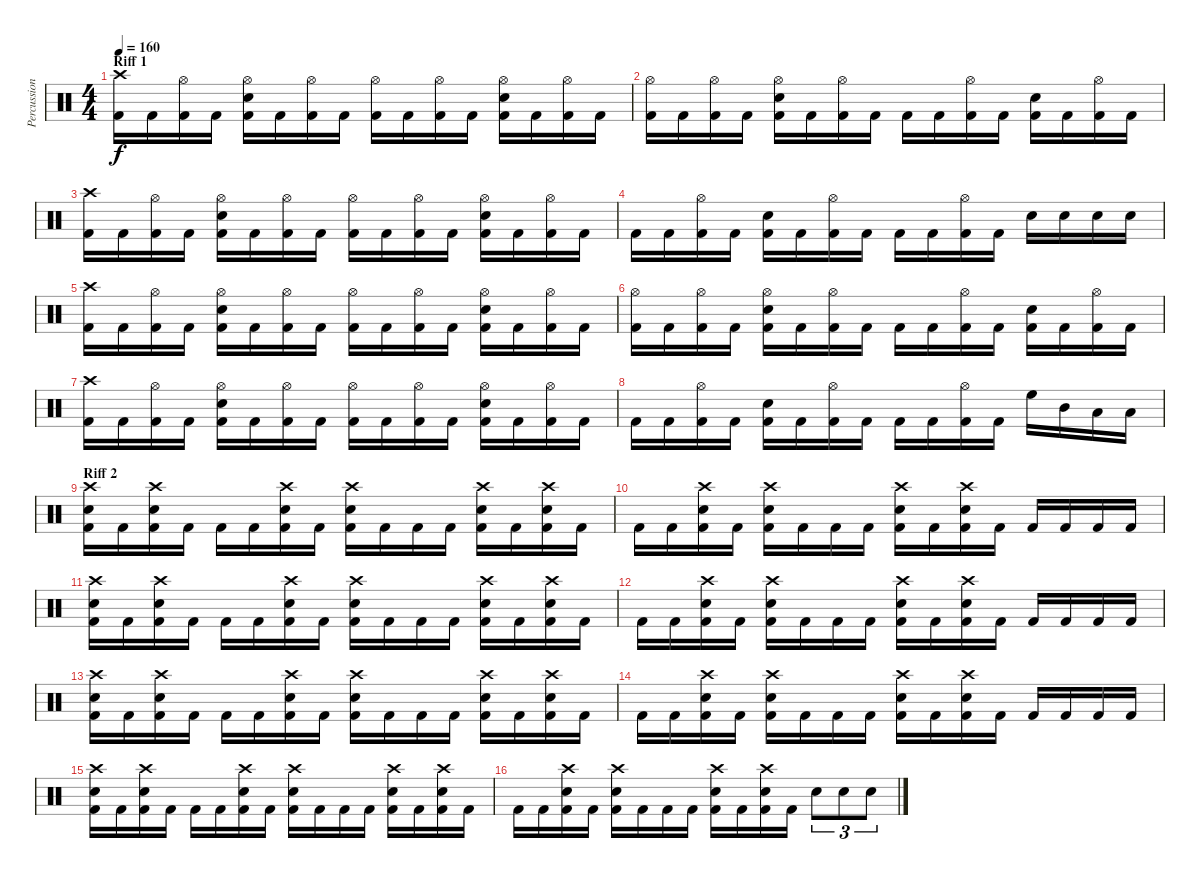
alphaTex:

\track ("Percussion" "Percussion") {instrument percussion}
\staff {score}
\articulation defaults
\ts (4 4)
\section ("" "Riff 1")
\tempo 160
\clef neutral
\ks c
("Crash high (hit)" "Kick (hit) 2").16{dy f} "Kick (hit) 2".16 ("Hi-Hat (open)" "Kick (hit) 2").16 "Kick (hit) 2".16 ("Hi-Hat (open)" "Electric Snare (hit)" "Kick (hit) 2").16 "Kick (hit) 2".16 ("Hi-Hat (open)" "Kick (hit) 2").16 "Kick (hit) 2".16 ("Hi-Hat (open)" "Kick (hit) 2").16 "Kick (hit) 2".16 ("Hi-Hat (open)" "Kick (hit) 2").16 "Kick (hit) 2".16 ("Hi-Hat (open)" "Electric Snare (hit)" "Kick (hit) 2").16 "Kick (hit) 2".16 ("Hi-Hat (open)" "Kick (hit) 2").16 "Kick (hit) 2".16 |
("Hi-Hat (open)" "Kick (hit) 2").16 "Kick (hit) 2".16 ("Hi-Hat (open)" "Kick (hit) 2").16 "Kick (hit) 2".16 ("Hi-Hat (open)" "Electric Snare (hit)" "Kick (hit) 2").16 "Kick (hit) 2".16 ("Hi-Hat (open)" "Kick (hit) 2").16 "Kick (hit) 2".16 "Kick (hit) 2".16 "Kick (hit) 2".16 ("Hi-Hat (open)" "Kick (hit) 2").16 "Kick (hit) 2".16 ("Electric Snare (hit)" "Kick (hit) 2").16 "Kick (hit) 2".16 ("Hi-Hat (open)" "Kick (hit) 2").16 "Kick (hit) 2".16 |
("Crash high (hit)" "Kick (hit) 2").16 "Kick (hit) 2".16 ("Hi-Hat (open)" "Kick (hit) 2").16 "Kick (hit) 2".16 ("Hi-Hat (open)" "Electric Snare (hit)" "Kick (hit) 2").16 "Kick (hit) 2".16 ("Hi-Hat (open)" "Kick (hit) 2").16 "Kick (hit) 2".16 ("Hi-Hat (open)" "Kick (hit) 2").16 "Kick (hit) 2".16 ("Hi-Hat (open)" "Kick (hit) 2").16 "Kick (hit) 2".16 ("Hi-Hat (open)" "Electric Snare (hit)" "Kick (hit) 2").16 "Kick (hit) 2".16 ("Hi-Hat (open)" "Kick (hit) 2").16 "Kick (hit) 2".16 |
"Kick (hit) 2".16 "Kick (hit) 2".16 ("Hi-Hat (open)" "Kick (hit) 2").16 "Kick (hit) 2".16 ("Electric Snare (hit)" "Kick (hit) 2").16 "Kick (hit) 2".16 ("Hi-Hat (open)" "Kick (hit) 2").16 "Kick (hit) 2".16 "Kick (hit) 2".16 "Kick (hit) 2".16 ("Hi-Hat (open)" "Kick (hit) 2").16 "Kick (hit) 2".16 "Electric Snare (hit)".16 "Electric Snare (hit)".16 "Electric Snare (hit)".16 "Electric Snare (hit)".16 |
("Crash high (hit)" "Kick (hit) 2").16 "Kick (hit) 2".16 ("Hi-Hat (open)" "Kick (hit) 2").16 "Kick (hit) 2".16 ("Hi-Hat (open)" "Electric Snare (hit)" "Kick (hit) 2").16 "Kick (hit) 2".16 ("Hi-Hat (open)" "Kick (hit) 2").16 "Kick (hit) 2".16 ("Hi-Hat (open)" "Kick (hit) 2").16 "Kick (hit) 2".16 ("Hi-Hat (open)" "Kick (hit) 2").16 "Kick (hit) 2".16 ("Hi-Hat (open)" "Electric Snare (hit)" "Kick (hit) 2").16 "Kick (hit) 2".16 ("Hi-Hat (open)" "Kick (hit) 2").16 "Kick (hit) 2".16 |
("Hi-Hat (open)" "Kick (hit) 2").16 "Kick (hit) 2".16 ("Hi-Hat (open)" "Kick (hit) 2").16 "Kick (hit) 2".16 ("Hi-Hat (open)" "Electric Snare (hit)" "Kick (hit) 2").16 "Kick (hit) 2".16 ("Hi-Hat (open)" "Kick (hit) 2").16 "Kick (hit) 2".16 "Kick (hit) 2".16 "Kick (hit) 2".16 ("Hi-Hat (open)" "Kick (hit) 2").16 "Kick (hit) 2".16 ("Electric Snare (hit)" "Kick (hit) 2").16 "Kick (hit) 2".16 ("Hi-Hat (open)" "Kick (hit) 2").16 "Kick (hit) 2".16 |
("Crash high (hit)" "Kick (hit) 2").16 "Kick (hit) 2".16 ("Hi-Hat (open)" "Kick (hit) 2").16 "Kick (hit) 2".16 ("Hi-Hat (open)" "Electric Snare (hit)" "Kick (hit) 2").16 "Kick (hit) 2".16 ("Hi-Hat (open)" "Kick (hit) 2").16 "Kick (hit) 2".16 ("Hi-Hat (open)" "Kick (hit) 2").16 "Kick (hit) 2".16 ("Hi-Hat (open)" "Kick (hit) 2").16 "Kick (hit) 2".16 ("Hi-Hat (open)" "Electric Snare (hit)" "Kick (hit) 2").16 "Kick (hit) 2".16 ("Hi-Hat (open)" "Kick (hit) 2").16 "Kick (hit) 2".16 |
"Kick (hit) 2".16 "Kick (hit) 2".16 ("Hi-Hat (open)" "Kick (hit) 2").16 "Kick (hit) 2".16 ("Electric Snare (hit)" "Kick (hit) 2").16 "Kick (hit) 2".16 ("Hi-Hat (open)" "Kick (hit) 2").16 "Kick (hit) 2".16 "Kick (hit) 2".16 "Kick (hit) 2".16 ("Hi-Hat (open)" "Kick (hit) 2").16 "Kick (hit) 2".16 "High Floor Tom (hit)".16 "Mid Tom (hit)".16 "Low Tom (hit)".16 "Low Floor Tom (hit)".16 |
\section ("" "Riff 2")
("Crash high (hit)" "Electric Snare (hit)" "Kick (hit) 2").16 "Kick (hit) 2".16 ("Crash high (hit)" "Electric Snare (hit)" "Kick (hit) 2").16 "Kick (hit) 2".16 "Kick (hit) 2".16 "Kick (hit) 2".16 ("Crash high (hit)" "Electric Snare (hit)" "Kick (hit) 2").16 "Kick (hit) 2".16 ("Crash high (hit)" "Electric Snare (hit)" "Kick (hit) 2").16 "Kick (hit) 2".16 "Kick (hit) 2".16 "Kick (hit) 2".16 ("Crash high (hit)" "Electric Snare (hit)" "Kick (hit) 2").16 "Kick (hit) 2".16 ("Crash high (hit)" "Electric Snare (hit)" "Kick (hit) 2").16 "Kick (hit) 2".16 |
"Kick (hit) 2".16 "Kick (hit) 2".16 ("Crash high (hit)" "Electric Snare (hit)" "Kick (hit) 2").16 "Kick (hit) 2".16 ("Crash high (hit)" "Electric Snare (hit)" "Kick (hit) 2").16 "Kick (hit) 2".16 "Kick (hit) 2".16 "Kick (hit) 2".16 ("Crash high (hit)" "Electric Snare (hit)" "Kick (hit) 2").16 "Kick (hit) 2".16 ("Crash high (hit)" "Electric Snare (hit)" "Kick (hit) 2").16 "Kick (hit) 2".16 "Kick (hit) 2".16 "Kick (hit) 2".16 "Kick (hit) 2".16 "Kick (hit) 2".16 |
("Crash high (hit)" "Electric Snare (hit)" "Kick (hit) 2").16 "Kick (hit) 2".16 ("Crash high (hit)" "Electric Snare (hit)" "Kick (hit) 2").16 "Kick (hit) 2".16 "Kick (hit) 2".16 "Kick (hit) 2".16 ("Crash high (hit)" "Electric Snare (hit)" "Kick (hit) 2").16 "Kick (hit) 2".16 ("Crash high (hit)" "Electric Snare (hit)" "Kick (hit) 2").16 "Kick (hit) 2".16 "Kick (hit) 2".16 "Kick (hit) 2".16 ("Crash high (hit)" "Electric Snare (hit)" "Kick (hit) 2").16 "Kick (hit) 2".16 ("Crash high (hit)" "Electric Snare (hit)" "Kick (hit) 2").16 "Kick (hit) 2".16 |
"Kick (hit) 2".16 "Kick (hit) 2".16 ("Crash high (hit)" "Electric Snare (hit)" "Kick (hit) 2").16 "Kick (hit) 2".16 ("Crash high (hit)" "Electric Snare (hit)" "Kick (hit) 2").16 "Kick (hit) 2".16 "Kick (hit) 2".16 "Kick (hit) 2".16 ("Crash high (hit)" "Electric Snare (hit)" "Kick (hit) 2").16 "Kick (hit) 2".16 ("Crash high (hit)" "Electric Snare (hit)" "Kick (hit) 2").16 "Kick (hit) 2".16 "Kick (hit) 2".16 "Kick (hit) 2".16 "Kick (hit) 2".16 "Kick (hit) 2".16 |
("Crash high (hit)" "Electric Snare (hit)" "Kick (hit) 2").16 "Kick (hit) 2".16 ("Crash high (hit)" "Electric Snare (hit)" "Kick (hit) 2").16 "Kick (hit) 2".16 "Kick (hit) 2".16 "Kick (hit) 2".16 ("Crash high (hit)" "Electric Snare (hit)" "Kick (hit) 2").16 "Kick (hit) 2".16 ("Crash high (hit)" "Electric Snare (hit)" "Kick (hit) 2").16 "Kick (hit) 2".16 "Kick (hit) 2".16 "Kick (hit) 2".16 ("Crash high (hit)" "Electric Snare (hit)" "Kick (hit) 2").16 "Kick (hit) 2".16 ("Crash high (hit)" "Electric Snare (hit)" "Kick (hit) 2").16 "Kick (hit) 2".16 |
"Kick (hit) 2".16 "Kick (hit) 2".16 ("Crash high (hit)" "Electric Snare (hit)" "Kick (hit) 2").16 "Kick (hit) 2".16 ("Crash high (hit)" "Electric Snare (hit)" "Kick (hit) 2").16 "Kick (hit) 2".16 "Kick (hit) 2".16 "Kick (hit) 2".16 ("Crash high (hit)" "Electric Snare (hit)" "Kick (hit) 2").16 "Kick (hit) 2".16 ("Crash high (hit)" "Electric Snare (hit)" "Kick (hit) 2").16 "Kick (hit) 2".16 "Kick (hit) 2".16 "Kick (hit) 2".16 "Kick (hit) 2".16 "Kick (hit) 2".16 |
("Crash high (hit)" "Electric Snare (hit)" "Kick (hit) 2").16 "Kick (hit) 2".16 ("Crash high (hit)" "Electric Snare (hit)" "Kick (hit) 2").16 "Kick (hit) 2".16 "Kick (hit) 2".16 "Kick (hit) 2".16 ("Crash high (hit)" "Electric Snare (hit)" "Kick (hit) 2").16 "Kick (hit) 2".16 ("Crash high (hit)" "Electric Snare (hit)" "Kick (hit) 2").16 "Kick (hit) 2".16 "Kick (hit) 2".16 "Kick (hit) 2".16 ("Crash high (hit)" "Electric Snare (hit)" "Kick (hit) 2").16 "Kick (hit) 2".16 ("Crash high (hit)" "Electric Snare (hit)" "Kick (hit) 2").16 "Kick (hit) 2".16 |
"Kick (hit) 2".16 "Kick (hit) 2".16 ("Crash high (hit)" "Electric Snare (hit)" "Kick (hit) 2").16 "Kick (hit) 2".16 ("Crash high (hit)" "Electric Snare (hit)" "Kick (hit) 2").16 "Kick (hit) 2".16 "Kick (hit) 2".16 "Kick (hit) 2".16 ("Crash high (hit)" "Electric Snare (hit)" "Kick (hit) 2").16 "Kick (hit) 2".16 ("Crash high (hit)" "Electric Snare (hit)" "Kick (hit) 2").16 "Kick (hit) 2".16 "Electric Snare (hit)".8{tu (3 2)} "Electric Snare (hit)".8{tu (3 2)} "Electric Snare (hit)".8{tu (3 2)}
